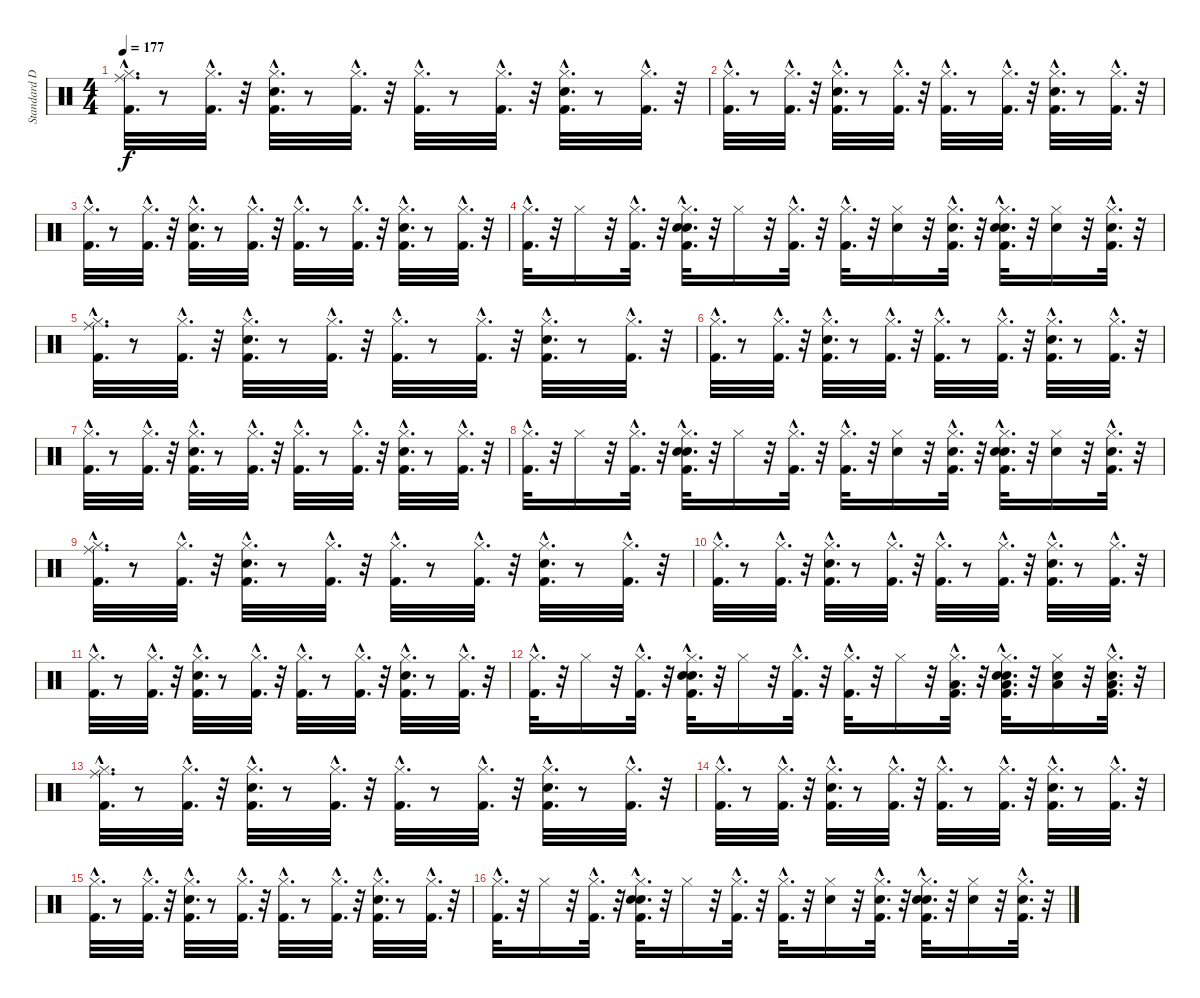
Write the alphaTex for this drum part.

\track ("Standard Drums" "Standard D") {instrument percussion}
\staff {score}
\articulation defaults
\ts (4 4)
\tempo 177
\clef neutral
\ks c
("Kick (hit) 2"{hac} "Hi-Hat (closed)"{hac} "Ride (middle)"{hac}).32{d dy f} r.8 ("Kick (hit) 2"{hac} "Hi-Hat (closed)"{hac}).32{d} r.32 ("Kick (hit) 2"{hac} "Snare (hit) 2"{hac} "Hi-Hat (closed)"{hac}).32{d} r.8 ("Kick (hit) 2"{hac} "Hi-Hat (closed)"{hac}).32{d} r.32 ("Kick (hit) 2"{hac} "Hi-Hat (closed)"{hac}).32{d} r.8 ("Kick (hit) 2"{hac} "Hi-Hat (closed)"{hac}).32{d} r.32 ("Kick (hit) 2"{hac} "Snare (hit) 2"{hac} "Hi-Hat (closed)"{hac}).32{d} r.8 ("Kick (hit) 2"{hac} "Hi-Hat (closed)"{hac}).32{d} r.32 |
("Kick (hit) 2"{hac} "Hi-Hat (closed)"{hac}).32{d} r.8 ("Kick (hit) 2"{hac} "Hi-Hat (closed)"{hac}).32{d} r.32 ("Kick (hit) 2"{hac} "Snare (hit) 2"{hac} "Hi-Hat (closed)"{hac}).32{d} r.8 ("Kick (hit) 2"{hac} "Hi-Hat (closed)"{hac}).32{d} r.32 ("Kick (hit) 2"{hac} "Hi-Hat (closed)"{hac}).32{d} r.8 ("Kick (hit) 2"{hac} "Hi-Hat (closed)"{hac}).32{d} r.32 ("Kick (hit) 2"{hac} "Snare (hit) 2"{hac} "Hi-Hat (closed)"{hac}).32{d} r.8 ("Kick (hit) 2"{hac} "Hi-Hat (closed)"{hac}).32{d} r.32 |
("Kick (hit) 2"{hac} "Hi-Hat (closed)"{hac}).32{d} r.8 ("Kick (hit) 2"{hac} "Hi-Hat (closed)"{hac}).32{d} r.32 ("Kick (hit) 2"{hac} "Snare (hit) 2"{hac} "Hi-Hat (closed)"{hac}).32{d} r.8 ("Kick (hit) 2"{hac} "Hi-Hat (closed)"{hac}).32{d} r.32 ("Kick (hit) 2"{hac} "Hi-Hat (closed)"{hac}).32{d} r.8 ("Kick (hit) 2"{hac} "Hi-Hat (closed)"{hac}).32{d} r.32 ("Kick (hit) 2"{hac} "Snare (hit) 2"{hac} "Hi-Hat (closed)"{hac}).32{d} r.8 ("Kick (hit) 2"{hac} "Hi-Hat (closed)"{hac}).32{d} r.32 |
("Kick (hit) 2"{hac} "Hi-Hat (closed)"{hac}).32{d} r.32 "Hi-Hat (closed)".16 r.32 ("Kick (hit) 2"{hac} "Hi-Hat (closed)"{hac}).32{d} r.32 ("Kick (hit) 2"{hac} "Snare (hit) 2"{hac} "Hi-Hat (closed)"{hac} "Hand Clap (hit)"{hac}).32{d} r.32 "Hi-Hat (closed)".16 r.32 ("Kick (hit) 2"{hac} "Hi-Hat (closed)"{hac}).32{d} r.32 ("Kick (hit) 2"{hac} "Hi-Hat (closed)"{hac}).32{d} r.32 ("Snare (hit) 2" "Hi-Hat (closed)").16 r.32 ("Kick (hit) 2"{hac} "Snare (hit) 2"{hac} "Hi-Hat (closed)"{hac}).32{d} r.32 ("Kick (hit) 2"{hac} "Snare (hit) 2"{hac} "Hi-Hat (closed)"{hac} "Hand Clap (hit)"{hac}).32{d} r.32 ("Snare (hit) 2" "Hi-Hat (closed)").16 r.32 ("Kick (hit) 2"{hac} "Snare (hit) 2"{hac} "Hi-Hat (closed)"{hac}).32{d} r.32 |
("Kick (hit) 2"{hac} "Hi-Hat (closed)"{hac} "Ride (middle)"{hac}).32{d} r.8 ("Kick (hit) 2"{hac} "Hi-Hat (closed)"{hac}).32{d} r.32 ("Kick (hit) 2"{hac} "Snare (hit) 2"{hac} "Hi-Hat (closed)"{hac}).32{d} r.8 ("Kick (hit) 2"{hac} "Hi-Hat (closed)"{hac}).32{d} r.32 ("Kick (hit) 2"{hac} "Hi-Hat (closed)"{hac}).32{d} r.8 ("Kick (hit) 2"{hac} "Hi-Hat (closed)"{hac}).32{d} r.32 ("Kick (hit) 2"{hac} "Snare (hit) 2"{hac} "Hi-Hat (closed)"{hac}).32{d} r.8 ("Kick (hit) 2"{hac} "Hi-Hat (closed)"{hac}).32{d} r.32 |
("Kick (hit) 2"{hac} "Hi-Hat (closed)"{hac}).32{d} r.8 ("Kick (hit) 2"{hac} "Hi-Hat (closed)"{hac}).32{d} r.32 ("Kick (hit) 2"{hac} "Snare (hit) 2"{hac} "Hi-Hat (closed)"{hac}).32{d} r.8 ("Kick (hit) 2"{hac} "Hi-Hat (closed)"{hac}).32{d} r.32 ("Kick (hit) 2"{hac} "Hi-Hat (closed)"{hac}).32{d} r.8 ("Kick (hit) 2"{hac} "Hi-Hat (closed)"{hac}).32{d} r.32 ("Kick (hit) 2"{hac} "Snare (hit) 2"{hac} "Hi-Hat (closed)"{hac}).32{d} r.8 ("Kick (hit) 2"{hac} "Hi-Hat (closed)"{hac}).32{d} r.32 |
("Kick (hit) 2"{hac} "Hi-Hat (closed)"{hac}).32{d} r.8 ("Kick (hit) 2"{hac} "Hi-Hat (closed)"{hac}).32{d} r.32 ("Kick (hit) 2"{hac} "Snare (hit) 2"{hac} "Hi-Hat (closed)"{hac}).32{d} r.8 ("Kick (hit) 2"{hac} "Hi-Hat (closed)"{hac}).32{d} r.32 ("Kick (hit) 2"{hac} "Hi-Hat (closed)"{hac}).32{d} r.8 ("Kick (hit) 2"{hac} "Hi-Hat (closed)"{hac}).32{d} r.32 ("Kick (hit) 2"{hac} "Snare (hit) 2"{hac} "Hi-Hat (closed)"{hac}).32{d} r.8 ("Kick (hit) 2"{hac} "Hi-Hat (closed)"{hac}).32{d} r.32 |
("Kick (hit) 2"{hac} "Hi-Hat (closed)"{hac}).32{d} r.32 "Hi-Hat (closed)".16 r.32 ("Kick (hit) 2"{hac} "Hi-Hat (closed)"{hac}).32{d} r.32 ("Kick (hit) 2"{hac} "Snare (hit) 2"{hac} "Hi-Hat (closed)"{hac} "Hand Clap (hit)"{hac}).32{d} r.32 "Hi-Hat (closed)".16 r.32 ("Kick (hit) 2"{hac} "Hi-Hat (closed)"{hac}).32{d} r.32 ("Kick (hit) 2"{hac} "Hi-Hat (closed)"{hac}).32{d} r.32 ("Snare (hit) 2" "Hi-Hat (closed)").16 r.32 ("Kick (hit) 2"{hac} "Snare (hit) 2"{hac} "Hi-Hat (closed)"{hac}).32{d} r.32 ("Kick (hit) 2"{hac} "Snare (hit) 2"{hac} "Hi-Hat (closed)"{hac} "Hand Clap (hit)"{hac}).32{d} r.32 ("Snare (hit) 2" "Hi-Hat (closed)").16 r.32 ("Kick (hit) 2"{hac} "Snare (hit) 2"{hac} "Hi-Hat (closed)"{hac}).32{d} r.32 |
("Kick (hit) 2"{hac} "Hi-Hat (closed)"{hac} "Ride (middle)"{hac}).32{d} r.8 ("Kick (hit) 2"{hac} "Hi-Hat (closed)"{hac}).32{d} r.32 ("Kick (hit) 2"{hac} "Snare (hit) 2"{hac} "Hi-Hat (closed)"{hac}).32{d} r.8 ("Kick (hit) 2"{hac} "Hi-Hat (closed)"{hac}).32{d} r.32 ("Kick (hit) 2"{hac} "Hi-Hat (closed)"{hac}).32{d} r.8 ("Kick (hit) 2"{hac} "Hi-Hat (closed)"{hac}).32{d} r.32 ("Kick (hit) 2"{hac} "Snare (hit) 2"{hac} "Hi-Hat (closed)"{hac}).32{d} r.8 ("Kick (hit) 2"{hac} "Hi-Hat (closed)"{hac}).32{d} r.32 |
("Kick (hit) 2"{hac} "Hi-Hat (closed)"{hac}).32{d} r.8 ("Kick (hit) 2"{hac} "Hi-Hat (closed)"{hac}).32{d} r.32 ("Kick (hit) 2"{hac} "Snare (hit) 2"{hac} "Hi-Hat (closed)"{hac}).32{d} r.8 ("Kick (hit) 2"{hac} "Hi-Hat (closed)"{hac}).32{d} r.32 ("Kick (hit) 2"{hac} "Hi-Hat (closed)"{hac}).32{d} r.8 ("Kick (hit) 2"{hac} "Hi-Hat (closed)"{hac}).32{d} r.32 ("Kick (hit) 2"{hac} "Snare (hit) 2"{hac} "Hi-Hat (closed)"{hac}).32{d} r.8 ("Kick (hit) 2"{hac} "Hi-Hat (closed)"{hac}).32{d} r.32 |
("Kick (hit) 2"{hac} "Hi-Hat (closed)"{hac}).32{d} r.8 ("Kick (hit) 2"{hac} "Hi-Hat (closed)"{hac}).32{d} r.32 ("Kick (hit) 2"{hac} "Snare (hit) 2"{hac} "Hi-Hat (closed)"{hac}).32{d} r.8 ("Kick (hit) 2"{hac} "Hi-Hat (closed)"{hac}).32{d} r.32 ("Kick (hit) 2"{hac} "Hi-Hat (closed)"{hac}).32{d} r.8 ("Kick (hit) 2"{hac} "Hi-Hat (closed)"{hac}).32{d} r.32 ("Kick (hit) 2"{hac} "Snare (hit) 2"{hac} "Hi-Hat (closed)"{hac}).32{d} r.8 ("Kick (hit) 2"{hac} "Hi-Hat (closed)"{hac}).32{d} r.32 |
("Kick (hit) 2"{hac} "Hi-Hat (closed)"{hac}).32{d} r.32 "Hi-Hat (closed)".16 r.32 ("Kick (hit) 2"{hac} "Hi-Hat (closed)"{hac}).32{d} r.32 ("Kick (hit) 2"{hac} "Snare (hit) 2"{hac} "Hi-Hat (closed)"{hac} "Hand Clap (hit)"{hac}).32{d} r.32 "Hi-Hat (closed)".16 r.32 ("Kick (hit) 2"{hac} "Hi-Hat (closed)"{hac}).32{d} r.32 ("Kick (hit) 2"{hac} "Hi-Hat (closed)"{hac}).32{d} r.32 "Hi-Hat (closed)".16 r.32 ("Kick (hit) 2"{hac} "Hi-Hat (closed)"{hac} "Low Tom (hit)"{hac}).32{d} r.32 ("Kick (hit) 2"{hac} "Snare (hit) 2"{hac} "Hi-Hat (closed)"{hac} "Low Tom (hit)"{hac} "Hand Clap (hit)"{hac}).32{d} r.32 ("Snare (hit) 2" "Hi-Hat (closed)" "Low Tom (hit)").16 r.32 ("Kick (hit) 2"{hac} "Snare (hit) 2"{hac} "Hi-Hat (closed)"{hac} "Low Tom (hit)"{hac}).32{d} r.32 |
("Kick (hit) 2"{hac} "Hi-Hat (closed)"{hac} "Ride (middle)"{hac}).32{d} r.8 ("Kick (hit) 2"{hac} "Hi-Hat (closed)"{hac}).32{d} r.32 ("Kick (hit) 2"{hac} "Snare (hit) 2"{hac} "Hi-Hat (closed)"{hac}).32{d} r.8 ("Kick (hit) 2"{hac} "Hi-Hat (closed)"{hac}).32{d} r.32 ("Kick (hit) 2"{hac} "Hi-Hat (closed)"{hac}).32{d} r.8 ("Kick (hit) 2"{hac} "Hi-Hat (closed)"{hac}).32{d} r.32 ("Kick (hit) 2"{hac} "Snare (hit) 2"{hac} "Hi-Hat (closed)"{hac}).32{d} r.8 ("Kick (hit) 2"{hac} "Hi-Hat (closed)"{hac}).32{d} r.32 |
("Kick (hit) 2"{hac} "Hi-Hat (closed)"{hac}).32{d} r.8 ("Kick (hit) 2"{hac} "Hi-Hat (closed)"{hac}).32{d} r.32 ("Kick (hit) 2"{hac} "Snare (hit) 2"{hac} "Hi-Hat (closed)"{hac}).32{d} r.8 ("Kick (hit) 2"{hac} "Hi-Hat (closed)"{hac}).32{d} r.32 ("Kick (hit) 2"{hac} "Hi-Hat (closed)"{hac}).32{d} r.8 ("Kick (hit) 2"{hac} "Hi-Hat (closed)"{hac}).32{d} r.32 ("Kick (hit) 2"{hac} "Snare (hit) 2"{hac} "Hi-Hat (closed)"{hac}).32{d} r.8 ("Kick (hit) 2"{hac} "Hi-Hat (closed)"{hac}).32{d} r.32 |
("Kick (hit) 2"{hac} "Hi-Hat (closed)"{hac}).32{d} r.8 ("Kick (hit) 2"{hac} "Hi-Hat (closed)"{hac}).32{d} r.32 ("Kick (hit) 2"{hac} "Snare (hit) 2"{hac} "Hi-Hat (closed)"{hac}).32{d} r.8 ("Kick (hit) 2"{hac} "Hi-Hat (closed)"{hac}).32{d} r.32 ("Kick (hit) 2"{hac} "Hi-Hat (closed)"{hac}).32{d} r.8 ("Kick (hit) 2"{hac} "Hi-Hat (closed)"{hac}).32{d} r.32 ("Kick (hit) 2"{hac} "Snare (hit) 2"{hac} "Hi-Hat (closed)"{hac}).32{d} r.8 ("Kick (hit) 2"{hac} "Hi-Hat (closed)"{hac}).32{d} r.32 |
("Kick (hit) 2"{hac} "Hi-Hat (closed)"{hac}).32{d} r.32 "Hi-Hat (closed)".16 r.32 ("Kick (hit) 2"{hac} "Hi-Hat (closed)"{hac}).32{d} r.32 ("Kick (hit) 2"{hac} "Snare (hit) 2"{hac} "Hi-Hat (closed)"{hac} "Hand Clap (hit)"{hac}).32{d} r.32 "Hi-Hat (closed)".16 r.32 ("Kick (hit) 2"{hac} "Hi-Hat (closed)"{hac}).32{d} r.32 ("Kick (hit) 2"{hac} "Hi-Hat (closed)"{hac}).32{d} r.32 ("Snare (hit) 2" "Hi-Hat (closed)").16 r.32 ("Kick (hit) 2"{hac} "Snare (hit) 2"{hac} "Hi-Hat (closed)"{hac}).32{d} r.32 ("Kick (hit) 2"{hac} "Snare (hit) 2"{hac} "Hi-Hat (closed)"{hac} "Hand Clap (hit)"{hac}).32{d} r.32 ("Snare (hit) 2" "Hi-Hat (closed)").16 r.32 ("Kick (hit) 2"{hac} "Snare (hit) 2"{hac} "Hi-Hat (closed)"{hac}).32{d} r.32
